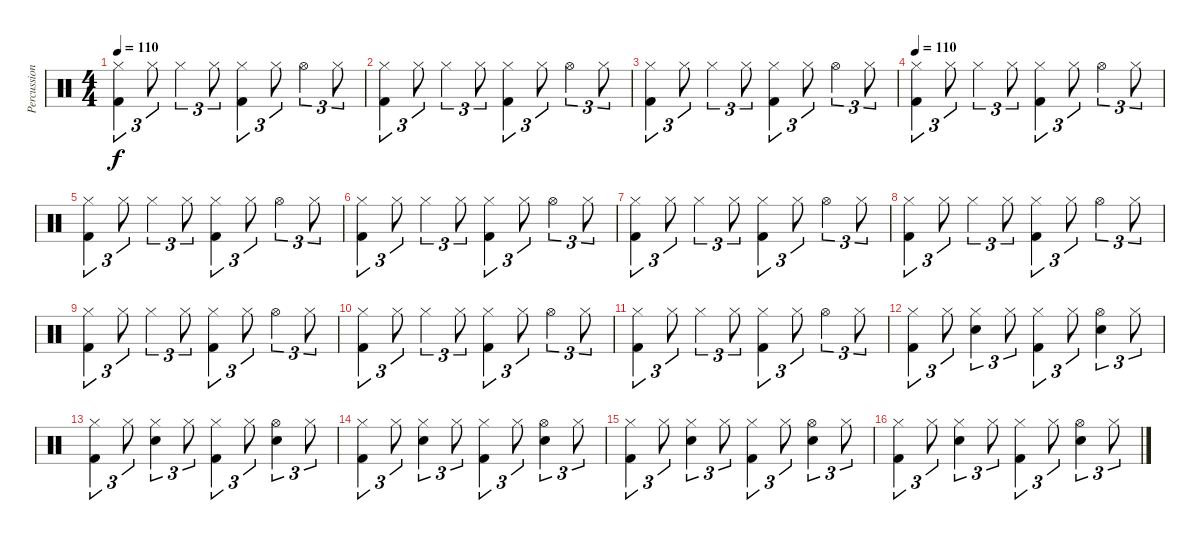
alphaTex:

\track ("Percussion" "Percussion") {instrument percussion}
\staff {score}
\articulation defaults
\ts (4 4)
\tempo 110
\clef neutral
\ks c
("Hi-Hat (closed)" "Kick (hit) 2").4{tu (3 2) dy f} "Hi-Hat (closed)".8{tu (3 2)} "Hi-Hat (closed)".4{tu (3 2)} "Hi-Hat (closed)".8{tu (3 2)} ("Hi-Hat (closed)" "Kick (hit) 2").4{tu (3 2)} "Hi-Hat (closed)".8{tu (3 2)} "Hi-Hat (open)".4{tu (3 2)} "Hi-Hat (closed)".8{tu (3 2)} |
("Hi-Hat (closed)" "Kick (hit) 2").4{tu (3 2)} "Hi-Hat (closed)".8{tu (3 2)} "Hi-Hat (closed)".4{tu (3 2)} "Hi-Hat (closed)".8{tu (3 2)} ("Hi-Hat (closed)" "Kick (hit) 2").4{tu (3 2)} "Hi-Hat (closed)".8{tu (3 2)} "Hi-Hat (open)".4{tu (3 2)} "Hi-Hat (closed)".8{tu (3 2)} |
("Hi-Hat (closed)" "Kick (hit) 2").4{tu (3 2)} "Hi-Hat (closed)".8{tu (3 2)} "Hi-Hat (closed)".4{tu (3 2)} "Hi-Hat (closed)".8{tu (3 2)} ("Hi-Hat (closed)" "Kick (hit) 2").4{tu (3 2)} "Hi-Hat (closed)".8{tu (3 2)} "Hi-Hat (open)".4{tu (3 2)} "Hi-Hat (closed)".8{tu (3 2)} |
\tempo 110
("Hi-Hat (closed)" "Kick (hit) 2").4{tu (3 2)} "Hi-Hat (closed)".8{tu (3 2)} "Hi-Hat (closed)".4{tu (3 2)} "Hi-Hat (closed)".8{tu (3 2)} ("Hi-Hat (closed)" "Kick (hit) 2").4{tu (3 2)} "Hi-Hat (closed)".8{tu (3 2)} "Hi-Hat (open)".4{tu (3 2)} "Hi-Hat (closed)".8{tu (3 2)} |
("Hi-Hat (closed)" "Kick (hit) 2").4{tu (3 2)} "Hi-Hat (closed)".8{tu (3 2)} "Hi-Hat (closed)".4{tu (3 2)} "Hi-Hat (closed)".8{tu (3 2)} ("Hi-Hat (closed)" "Kick (hit) 2").4{tu (3 2)} "Hi-Hat (closed)".8{tu (3 2)} "Hi-Hat (open)".4{tu (3 2)} "Hi-Hat (closed)".8{tu (3 2)} |
("Hi-Hat (closed)" "Kick (hit) 2").4{tu (3 2)} "Hi-Hat (closed)".8{tu (3 2)} "Hi-Hat (closed)".4{tu (3 2)} "Hi-Hat (closed)".8{tu (3 2)} ("Hi-Hat (closed)" "Kick (hit) 2").4{tu (3 2)} "Hi-Hat (closed)".8{tu (3 2)} "Hi-Hat (open)".4{tu (3 2)} "Hi-Hat (closed)".8{tu (3 2)} |
("Hi-Hat (closed)" "Kick (hit) 2").4{tu (3 2)} "Hi-Hat (closed)".8{tu (3 2)} "Hi-Hat (closed)".4{tu (3 2)} "Hi-Hat (closed)".8{tu (3 2)} ("Hi-Hat (closed)" "Kick (hit) 2").4{tu (3 2)} "Hi-Hat (closed)".8{tu (3 2)} "Hi-Hat (open)".4{tu (3 2)} "Hi-Hat (closed)".8{tu (3 2)} |
("Hi-Hat (closed)" "Kick (hit) 2").4{tu (3 2)} "Hi-Hat (closed)".8{tu (3 2)} "Hi-Hat (closed)".4{tu (3 2)} "Hi-Hat (closed)".8{tu (3 2)} ("Hi-Hat (closed)" "Kick (hit) 2").4{tu (3 2)} "Hi-Hat (closed)".8{tu (3 2)} "Hi-Hat (open)".4{tu (3 2)} "Hi-Hat (closed)".8{tu (3 2)} |
("Hi-Hat (closed)" "Kick (hit) 2").4{tu (3 2)} "Hi-Hat (closed)".8{tu (3 2)} "Hi-Hat (closed)".4{tu (3 2)} "Hi-Hat (closed)".8{tu (3 2)} ("Hi-Hat (closed)" "Kick (hit) 2").4{tu (3 2)} "Hi-Hat (closed)".8{tu (3 2)} "Hi-Hat (open)".4{tu (3 2)} "Hi-Hat (closed)".8{tu (3 2)} |
("Hi-Hat (closed)" "Kick (hit) 2").4{tu (3 2)} "Hi-Hat (closed)".8{tu (3 2)} "Hi-Hat (closed)".4{tu (3 2)} "Hi-Hat (closed)".8{tu (3 2)} ("Hi-Hat (closed)" "Kick (hit) 2").4{tu (3 2)} "Hi-Hat (closed)".8{tu (3 2)} "Hi-Hat (open)".4{tu (3 2)} "Hi-Hat (closed)".8{tu (3 2)} |
("Hi-Hat (closed)" "Kick (hit) 2").4{tu (3 2)} "Hi-Hat (closed)".8{tu (3 2)} "Hi-Hat (closed)".4{tu (3 2)} "Hi-Hat (closed)".8{tu (3 2)} ("Hi-Hat (closed)" "Kick (hit) 2").4{tu (3 2)} "Hi-Hat (closed)".8{tu (3 2)} "Hi-Hat (open)".4{tu (3 2)} "Hi-Hat (closed)".8{tu (3 2)} |
("Hi-Hat (closed)" "Kick (hit) 2").4{tu (3 2)} "Hi-Hat (closed)".8{tu (3 2)} ("Hi-Hat (closed)" "Snare (hit) 2").4{tu (3 2)} "Hi-Hat (closed)".8{tu (3 2)} ("Hi-Hat (closed)" "Kick (hit) 2").4{tu (3 2)} "Hi-Hat (closed)".8{tu (3 2)} ("Hi-Hat (open)" "Snare (hit) 2").4{tu (3 2)} "Hi-Hat (closed)".8{tu (3 2)} |
("Hi-Hat (closed)" "Kick (hit) 2").4{tu (3 2)} "Hi-Hat (closed)".8{tu (3 2)} ("Hi-Hat (closed)" "Snare (hit) 2").4{tu (3 2)} "Hi-Hat (closed)".8{tu (3 2)} ("Hi-Hat (closed)" "Kick (hit) 2").4{tu (3 2)} "Hi-Hat (closed)".8{tu (3 2)} ("Hi-Hat (open)" "Snare (hit) 2").4{tu (3 2)} "Hi-Hat (closed)".8{tu (3 2)} |
("Hi-Hat (closed)" "Kick (hit) 2").4{tu (3 2)} "Hi-Hat (closed)".8{tu (3 2)} ("Hi-Hat (closed)" "Snare (hit) 2").4{tu (3 2)} "Hi-Hat (closed)".8{tu (3 2)} ("Hi-Hat (closed)" "Kick (hit) 2").4{tu (3 2)} "Hi-Hat (closed)".8{tu (3 2)} ("Hi-Hat (open)" "Snare (hit) 2").4{tu (3 2)} "Hi-Hat (closed)".8{tu (3 2)} |
("Hi-Hat (closed)" "Kick (hit) 2").4{tu (3 2)} "Hi-Hat (closed)".8{tu (3 2)} ("Hi-Hat (closed)" "Snare (hit) 2").4{tu (3 2)} "Hi-Hat (closed)".8{tu (3 2)} ("Hi-Hat (closed)" "Kick (hit) 2").4{tu (3 2)} "Hi-Hat (closed)".8{tu (3 2)} ("Hi-Hat (open)" "Snare (hit) 2").4{tu (3 2)} "Hi-Hat (closed)".8{tu (3 2)} |
("Hi-Hat (closed)" "Kick (hit) 2").4{tu (3 2)} "Hi-Hat (closed)".8{tu (3 2)} ("Hi-Hat (closed)" "Snare (hit) 2").4{tu (3 2)} "Hi-Hat (closed)".8{tu (3 2)} ("Hi-Hat (closed)" "Kick (hit) 2").4{tu (3 2)} "Hi-Hat (closed)".8{tu (3 2)} ("Hi-Hat (open)" "Snare (hit) 2").4{tu (3 2)} "Hi-Hat (closed)".8{tu (3 2)}
